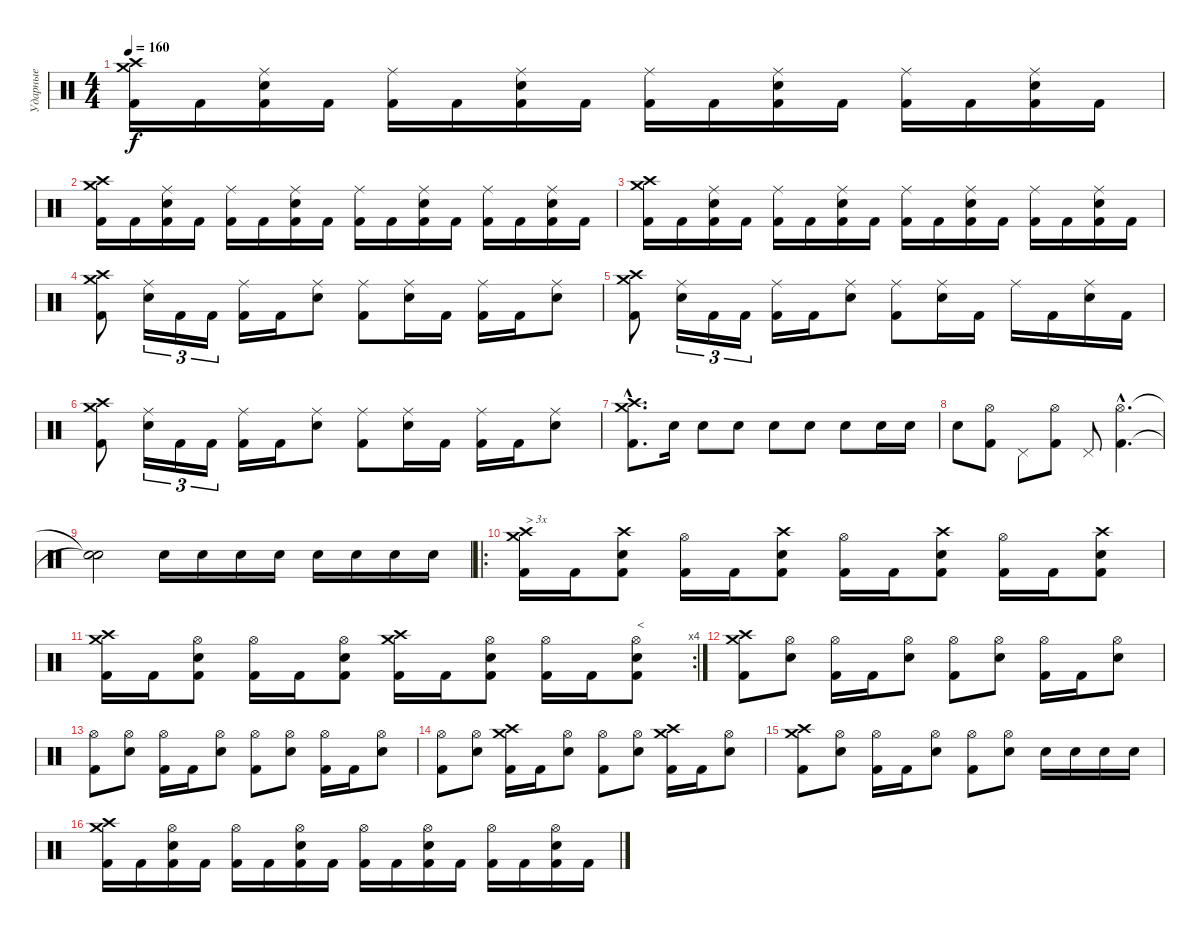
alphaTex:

\track ("Ударные" "Ударные") {instrument percussion}
\staff {score}
\articulation defaults
\ts (4 4)
\tempo 160
\clef neutral
\ks c
("Kick (hit) 2" "Crash high (hit)" "Crash medium (hit)").16{dy f} "Kick (hit) 2".16 ("Kick (hit) 2" "Electric Snare (hit)" "Ride (middle)").16 "Kick (hit) 2".16 ("Kick (hit) 2" "Ride (middle)").16 "Kick (hit) 2".16 ("Kick (hit) 2" "Electric Snare (hit)" "Ride (middle)").16 "Kick (hit) 2".16 ("Kick (hit) 2" "Ride (middle)").16 "Kick (hit) 2".16 ("Kick (hit) 2" "Electric Snare (hit)" "Ride (middle)").16 "Kick (hit) 2".16 ("Kick (hit) 2" "Ride (middle)").16 "Kick (hit) 2".16 ("Kick (hit) 2" "Electric Snare (hit)" "Ride (middle)").16 "Kick (hit) 2".16 |
("Kick (hit) 2" "Crash high (hit)" "Crash medium (hit)").16 "Kick (hit) 2".16 ("Kick (hit) 2" "Electric Snare (hit)" "Ride (middle)").16 "Kick (hit) 2".16 ("Kick (hit) 2" "Ride (middle)").16 "Kick (hit) 2".16 ("Kick (hit) 2" "Electric Snare (hit)" "Ride (middle)").16 "Kick (hit) 2".16 ("Kick (hit) 2" "Ride (middle)").16 "Kick (hit) 2".16 ("Kick (hit) 2" "Electric Snare (hit)" "Ride (middle)").16 "Kick (hit) 2".16 ("Kick (hit) 2" "Ride (middle)").16 "Kick (hit) 2".16 ("Kick (hit) 2" "Electric Snare (hit)" "Ride (middle)").16 "Kick (hit) 2".16 |
("Kick (hit) 2" "Crash high (hit)" "Crash medium (hit)").16 "Kick (hit) 2".16 ("Kick (hit) 2" "Electric Snare (hit)" "Ride (middle)").16 "Kick (hit) 2".16 ("Kick (hit) 2" "Ride (middle)").16 "Kick (hit) 2".16 ("Kick (hit) 2" "Electric Snare (hit)" "Ride (middle)").16 "Kick (hit) 2".16 ("Kick (hit) 2" "Ride (middle)").16 "Kick (hit) 2".16 ("Kick (hit) 2" "Electric Snare (hit)" "Ride (middle)").16 "Kick (hit) 2".16 ("Kick (hit) 2" "Ride (middle)").16 "Kick (hit) 2".16 ("Kick (hit) 2" "Electric Snare (hit)" "Ride (middle)").16 "Kick (hit) 2".16 |
("Kick (hit) 2" "Crash high (hit)" "Crash medium (hit)").8 ("Electric Snare (hit)" "Ride (middle)").16{tu (3 2)} "Kick (hit) 2".16{tu (3 2)} "Kick (hit) 2".16{tu (3 2)} ("Kick (hit) 2" "Ride (middle)").16 "Kick (hit) 2".16 ("Electric Snare (hit)" "Ride (middle)").8 ("Kick (hit) 2" "Ride (middle)").8 ("Electric Snare (hit)" "Ride (middle)").16 "Kick (hit) 2".16 ("Kick (hit) 2" "Ride (middle)").16 "Kick (hit) 2".16 ("Electric Snare (hit)" "Ride (middle)").8 |
("Kick (hit) 2" "Crash high (hit)" "Crash medium (hit)").8 ("Electric Snare (hit)" "Ride (middle)").16{tu (3 2)} "Kick (hit) 2".16{tu (3 2)} "Kick (hit) 2".16{tu (3 2)} ("Kick (hit) 2" "Ride (middle)").16 "Kick (hit) 2".16 ("Electric Snare (hit)" "Ride (middle)").8 ("Kick (hit) 2" "Ride (middle)").8 ("Electric Snare (hit)" "Ride (middle)").16 "Kick (hit) 2".16 "Ride (middle)".16 "Kick (hit) 2".16 ("Electric Snare (hit)" "Ride (middle)").16 "Kick (hit) 2".16 |
("Kick (hit) 2" "Crash high (hit)" "Crash medium (hit)").8 ("Electric Snare (hit)" "Ride (middle)").16{tu (3 2)} "Kick (hit) 2".16{tu (3 2)} "Kick (hit) 2".16{tu (3 2)} ("Kick (hit) 2" "Ride (middle)").16 "Kick (hit) 2".16 ("Electric Snare (hit)" "Ride (middle)").8 ("Kick (hit) 2" "Ride (middle)").8 ("Electric Snare (hit)" "Ride (middle)").16 "Kick (hit) 2".16 ("Kick (hit) 2" "Ride (middle)").16 "Kick (hit) 2".16 ("Electric Snare (hit)" "Ride (middle)").8 |
("Kick (hit) 2"{hac} "Crash high (hit)"{hac} "Crash medium (hit)"{hac}).8{d} "Electric Snare (hit)".16 "Electric Snare (hit)".8 "Electric Snare (hit)".8 "Electric Snare (hit)".8 "Electric Snare (hit)".8 "Electric Snare (hit)".8 "Electric Snare (hit)".16 "Electric Snare (hit)".16 |
"Electric Snare (hit)".8 ("Kick (hit) 2" "Hi-Hat (open)").8 "Pedal Hi-Hat (hit)".8 ("Kick (hit) 2" "Hi-Hat (open)").8 "Pedal Hi-Hat (hit)".8 ("Kick (hit) 2"{hac} "Hi-Hat (open)"{hac}).4{d} |
("Snare (hit)"{t} "Snare (hit)"{t}).2 "Electric Snare (hit)".16 "Electric Snare (hit)".16 "Electric Snare (hit)".16 "Electric Snare (hit)".16 "Electric Snare (hit)".16 "Electric Snare (hit)".16 "Electric Snare (hit)".16 "Electric Snare (hit)".16 |
\ro
("Kick (hit) 2" "Crash high (hit)" "Crash medium (hit)").16{txt "> 3x"} "Kick (hit) 2".16 ("Kick (hit) 2" "Electric Snare (hit)" "Crash high (hit)").8 ("Kick (hit) 2" "Hi-Hat (open)").16 "Kick (hit) 2".16 ("Kick (hit) 2" "Electric Snare (hit)" "Crash high (hit)").8 ("Kick (hit) 2" "Hi-Hat (open)").16 "Kick (hit) 2".16 ("Kick (hit) 2" "Electric Snare (hit)" "Crash high (hit)").8 ("Kick (hit) 2" "Hi-Hat (open)").16 "Kick (hit) 2".16 ("Kick (hit) 2" "Electric Snare (hit)" "Crash high (hit)").8 |
\rc 4
("Kick (hit) 2" "Crash high (hit)" "Crash medium (hit)").16 "Kick (hit) 2".16 ("Kick (hit) 2" "Electric Snare (hit)" "Hi-Hat (open)").8 ("Kick (hit) 2" "Hi-Hat (open)").16 "Kick (hit) 2".16 ("Kick (hit) 2" "Electric Snare (hit)" "Hi-Hat (open)").8 ("Kick (hit) 2" "Crash high (hit)" "Crash medium (hit)").16 "Kick (hit) 2".16 ("Kick (hit) 2" "Electric Snare (hit)" "Hi-Hat (open)").8 ("Kick (hit) 2" "Hi-Hat (open)").16 "Kick (hit) 2".16 ("Kick (hit) 2" "Electric Snare (hit)" "Hi-Hat (open)").8{txt "<"} |
("Kick (hit) 2" "Crash high (hit)" "Crash medium (hit)").8 ("Electric Snare (hit)" "Hi-Hat (open)").8 ("Kick (hit) 2" "Hi-Hat (open)").16 "Kick (hit) 2".16 ("Electric Snare (hit)" "Hi-Hat (open)").8 ("Kick (hit) 2" "Hi-Hat (open)").8 ("Electric Snare (hit)" "Hi-Hat (open)").8 ("Kick (hit) 2" "Hi-Hat (open)").16 "Kick (hit) 2".16 ("Electric Snare (hit)" "Hi-Hat (open)").8 |
("Kick (hit) 2" "Hi-Hat (open)").8 ("Electric Snare (hit)" "Hi-Hat (open)").8 ("Kick (hit) 2" "Hi-Hat (open)").16 "Kick (hit) 2".16 ("Electric Snare (hit)" "Hi-Hat (open)").8 ("Kick (hit) 2" "Hi-Hat (open)").8 ("Electric Snare (hit)" "Hi-Hat (open)").8 ("Kick (hit) 2" "Hi-Hat (open)").16 "Kick (hit) 2".16 ("Electric Snare (hit)" "Hi-Hat (open)").8 |
("Kick (hit) 2" "Hi-Hat (open)").8 ("Electric Snare (hit)" "Hi-Hat (open)").8 ("Kick (hit) 2" "Crash high (hit)" "Crash medium (hit)").16 "Kick (hit) 2".16 ("Electric Snare (hit)" "Hi-Hat (open)").8 ("Kick (hit) 2" "Hi-Hat (open)").8 ("Electric Snare (hit)" "Hi-Hat (open)").8 ("Kick (hit) 2" "Crash high (hit)" "Crash medium (hit)").16 "Kick (hit) 2".16 ("Electric Snare (hit)" "Hi-Hat (open)").8 |
("Kick (hit) 2" "Crash high (hit)" "Crash medium (hit)").8 ("Electric Snare (hit)" "Hi-Hat (open)").8 ("Kick (hit) 2" "Hi-Hat (open)").16 "Kick (hit) 2".16 ("Electric Snare (hit)" "Hi-Hat (open)").8 ("Kick (hit) 2" "Hi-Hat (open)").8 ("Electric Snare (hit)" "Hi-Hat (open)").8 "Electric Snare (hit)".16 "Electric Snare (hit)".16 "Electric Snare (hit)".16 "Electric Snare (hit)".16 |
("Kick (hit) 2" "Crash high (hit)" "Crash medium (hit)").16 "Kick (hit) 2".16 ("Kick (hit) 2" "Electric Snare (hit)" "Hi-Hat (open)").16 "Kick (hit) 2".16 ("Kick (hit) 2" "Hi-Hat (open)").16 "Kick (hit) 2".16 ("Kick (hit) 2" "Electric Snare (hit)" "Hi-Hat (open)").16 "Kick (hit) 2".16 ("Kick (hit) 2" "Hi-Hat (open)").16 "Kick (hit) 2".16 ("Kick (hit) 2" "Electric Snare (hit)" "Hi-Hat (open)").16 "Kick (hit) 2".16 ("Kick (hit) 2" "Hi-Hat (open)").16 "Kick (hit) 2".16 ("Kick (hit) 2" "Electric Snare (hit)" "Hi-Hat (open)").16 "Kick (hit) 2".16
